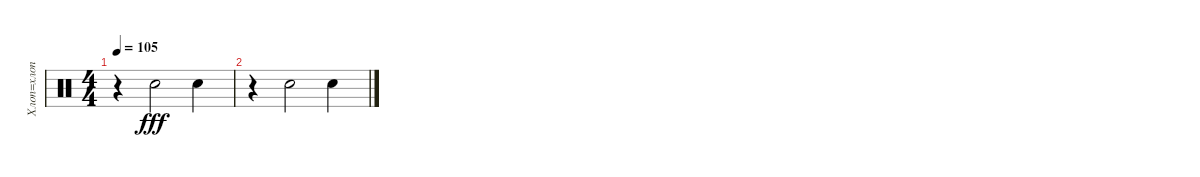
\track ("Хлоп=хлоп" "Хлоп=хлоп") {instrument percussion}
\staff {score}
\articulation defaults
\ts (4 4)
\tempo 105
\clef neutral
\ks c
r.4{dy fff} "Hand Clap (hit)".2 "Hand Clap (hit)".4 |
r.4 "Hand Clap (hit)".2 "Hand Clap (hit)".4
